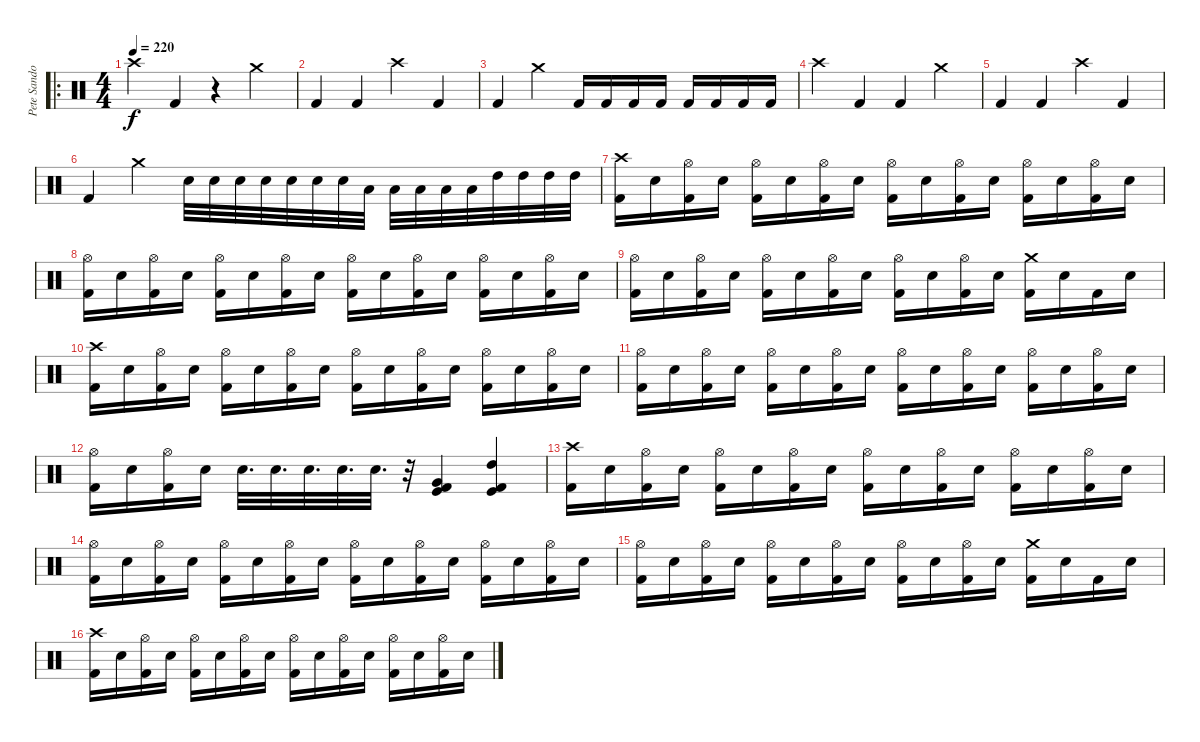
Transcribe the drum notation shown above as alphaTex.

\track ("Pete Sandoval" "Pete Sando") {instrument percussion}
\staff {score}
\articulation defaults
\ro
\ts (4 4)
\tempo 220
\clef neutral
\ks c "Crash high (hit)".4{dy f} "Kick (hit) 2".4
r.4 "Crash medium (hit)".4 |
"Kick (hit) 2".4 "Kick (hit) 2".4 "Crash high (hit)".4 "Kick (hit) 2".4 |
"Kick (hit) 2".4 "Crash medium (hit)".4 "Kick (hit) 2".16 "Kick (hit) 2".16 "Kick (hit) 2".16 "Kick (hit) 2".16 "Kick (hit) 2".16 "Kick (hit) 2".16 "Kick (hit) 2".16 "Kick (hit) 2".16 |
"Crash high (hit)".4 "Kick (hit) 2".4 "Kick (hit) 2".4 "Crash medium (hit)".4 |
"Kick (hit) 2".4 "Kick (hit) 2".4 "Crash high (hit)".4 "Kick (hit) 2".4 |
"Kick (hit) 2".4 "Crash medium (hit)".4 "Electric Snare (hit)".32 "Electric Snare (hit)".32 "Electric Snare (hit)".32 "Electric Snare (hit)".32 "Electric Snare (hit)".32 "Electric Snare (hit)".32 "Electric Snare (hit)".32 "Low Tom (hit)".32 "Low Tom (hit)".32 "Low Tom (hit)".32 "Low Tom (hit)".32 "Low Tom (hit)".32 "High Tom (hit)".32 "High Tom (hit)".32 "High Tom (hit)".32 "High Tom (hit)".32 |
("Crash high (hit)" "Kick (hit) 2").16 "Electric Snare (hit)".16 ("Hi-Hat (open)" "Kick (hit) 2").16 "Electric Snare (hit)".16 ("Hi-Hat (open)" "Kick (hit) 2").16 "Electric Snare (hit)".16 ("Hi-Hat (open)" "Kick (hit) 2").16 "Electric Snare (hit)".16 ("Hi-Hat (open)" "Kick (hit) 2").16 "Electric Snare (hit)".16 ("Hi-Hat (open)" "Kick (hit) 2").16 "Electric Snare (hit)".16 ("Hi-Hat (open)" "Kick (hit) 2").16 "Electric Snare (hit)".16 ("Hi-Hat (open)" "Kick (hit) 2").16 "Electric Snare (hit)".16 |
("Hi-Hat (open)" "Kick (hit) 2").16 "Electric Snare (hit)".16 ("Hi-Hat (open)" "Kick (hit) 2").16 "Electric Snare (hit)".16 ("Hi-Hat (open)" "Kick (hit) 2").16 "Electric Snare (hit)".16 ("Hi-Hat (open)" "Kick (hit) 2").16 "Electric Snare (hit)".16 ("Hi-Hat (open)" "Kick (hit) 2").16 "Electric Snare (hit)".16 ("Hi-Hat (open)" "Kick (hit) 2").16 "Electric Snare (hit)".16 ("Hi-Hat (open)" "Kick (hit) 2").16 "Electric Snare (hit)".16 ("Hi-Hat (open)" "Kick (hit) 2").16 "Electric Snare (hit)".16 |
("Hi-Hat (open)" "Kick (hit) 2").16 "Electric Snare (hit)".16 ("Hi-Hat (open)" "Kick (hit) 2").16 "Electric Snare (hit)".16 ("Hi-Hat (open)" "Kick (hit) 2").16 "Electric Snare (hit)".16 ("Hi-Hat (open)" "Kick (hit) 2").16 "Electric Snare (hit)".16 ("Hi-Hat (open)" "Kick (hit) 2").16 "Electric Snare (hit)".16 ("Hi-Hat (open)" "Kick (hit) 2").16 "Electric Snare (hit)".16 ("Crash medium (hit)" "Kick (hit) 2").16 "Electric Snare (hit)".16 "Kick (hit) 2".16 "Electric Snare (hit)".16 |
("Crash high (hit)" "Kick (hit) 2").16 "Electric Snare (hit)".16 ("Hi-Hat (open)" "Kick (hit) 2").16 "Electric Snare (hit)".16 ("Hi-Hat (open)" "Kick (hit) 2").16 "Electric Snare (hit)".16 ("Hi-Hat (open)" "Kick (hit) 2").16 "Electric Snare (hit)".16 ("Hi-Hat (open)" "Kick (hit) 2").16 "Electric Snare (hit)".16 ("Hi-Hat (open)" "Kick (hit) 2").16 "Electric Snare (hit)".16 ("Hi-Hat (open)" "Kick (hit) 2").16 "Electric Snare (hit)".16 ("Hi-Hat (open)" "Kick (hit) 2").16 "Electric Snare (hit)".16 |
("Hi-Hat (open)" "Kick (hit) 2").16 "Electric Snare (hit)".16 ("Hi-Hat (open)" "Kick (hit) 2").16 "Electric Snare (hit)".16 ("Hi-Hat (open)" "Kick (hit) 2").16 "Electric Snare (hit)".16 ("Hi-Hat (open)" "Kick (hit) 2").16 "Electric Snare (hit)".16 ("Hi-Hat (open)" "Kick (hit) 2").16 "Electric Snare (hit)".16 ("Hi-Hat (open)" "Kick (hit) 2").16 "Electric Snare (hit)".16 ("Hi-Hat (open)" "Kick (hit) 2").16 "Electric Snare (hit)".16 ("Hi-Hat (open)" "Kick (hit) 2").16 "Electric Snare (hit)".16 |
("Hi-Hat (open)" "Kick (hit) 2").16 "Electric Snare (hit)".16 ("Hi-Hat (open)" "Kick (hit) 2").16 "Electric Snare (hit)".16 "Electric Snare (hit)".32{d} "Electric Snare (hit)".32{d} "Electric Snare (hit)".32{d} "Electric Snare (hit)".32{d} "Electric Snare (hit)".32{d} r.32 ("Very Low Tom (hit)" "Kick (hit)" "Kick (hit) 2").4 ("High Tom (hit)" "Kick (hit)" "Kick (hit) 2").4 |
("Crash high (hit)" "Kick (hit) 2").16 "Electric Snare (hit)".16 ("Hi-Hat (open)" "Kick (hit) 2").16 "Electric Snare (hit)".16 ("Hi-Hat (open)" "Kick (hit) 2").16 "Electric Snare (hit)".16 ("Hi-Hat (open)" "Kick (hit) 2").16 "Electric Snare (hit)".16 ("Hi-Hat (open)" "Kick (hit) 2").16 "Electric Snare (hit)".16 ("Hi-Hat (open)" "Kick (hit) 2").16 "Electric Snare (hit)".16 ("Hi-Hat (open)" "Kick (hit) 2").16 "Electric Snare (hit)".16 ("Hi-Hat (open)" "Kick (hit) 2").16 "Electric Snare (hit)".16 |
("Hi-Hat (open)" "Kick (hit) 2").16 "Electric Snare (hit)".16 ("Hi-Hat (open)" "Kick (hit) 2").16 "Electric Snare (hit)".16 ("Hi-Hat (open)" "Kick (hit) 2").16 "Electric Snare (hit)".16 ("Hi-Hat (open)" "Kick (hit) 2").16 "Electric Snare (hit)".16 ("Hi-Hat (open)" "Kick (hit) 2").16 "Electric Snare (hit)".16 ("Hi-Hat (open)" "Kick (hit) 2").16 "Electric Snare (hit)".16 ("Hi-Hat (open)" "Kick (hit) 2").16 "Electric Snare (hit)".16 ("Hi-Hat (open)" "Kick (hit) 2").16 "Electric Snare (hit)".16 |
("Hi-Hat (open)" "Kick (hit) 2").16 "Electric Snare (hit)".16 ("Hi-Hat (open)" "Kick (hit) 2").16 "Electric Snare (hit)".16 ("Hi-Hat (open)" "Kick (hit) 2").16 "Electric Snare (hit)".16 ("Hi-Hat (open)" "Kick (hit) 2").16 "Electric Snare (hit)".16 ("Hi-Hat (open)" "Kick (hit) 2").16 "Electric Snare (hit)".16 ("Hi-Hat (open)" "Kick (hit) 2").16 "Electric Snare (hit)".16 ("Crash medium (hit)" "Kick (hit) 2").16 "Electric Snare (hit)".16 "Kick (hit) 2".16 "Electric Snare (hit)".16 |
("Crash high (hit)" "Kick (hit) 2").16 "Electric Snare (hit)".16 ("Hi-Hat (open)" "Kick (hit) 2").16 "Electric Snare (hit)".16 ("Hi-Hat (open)" "Kick (hit) 2").16 "Electric Snare (hit)".16 ("Hi-Hat (open)" "Kick (hit) 2").16 "Electric Snare (hit)".16 ("Hi-Hat (open)" "Kick (hit) 2").16 "Electric Snare (hit)".16 ("Hi-Hat (open)" "Kick (hit) 2").16 "Electric Snare (hit)".16 ("Hi-Hat (open)" "Kick (hit) 2").16 "Electric Snare (hit)".16 ("Hi-Hat (open)" "Kick (hit) 2").16 "Electric Snare (hit)".16
